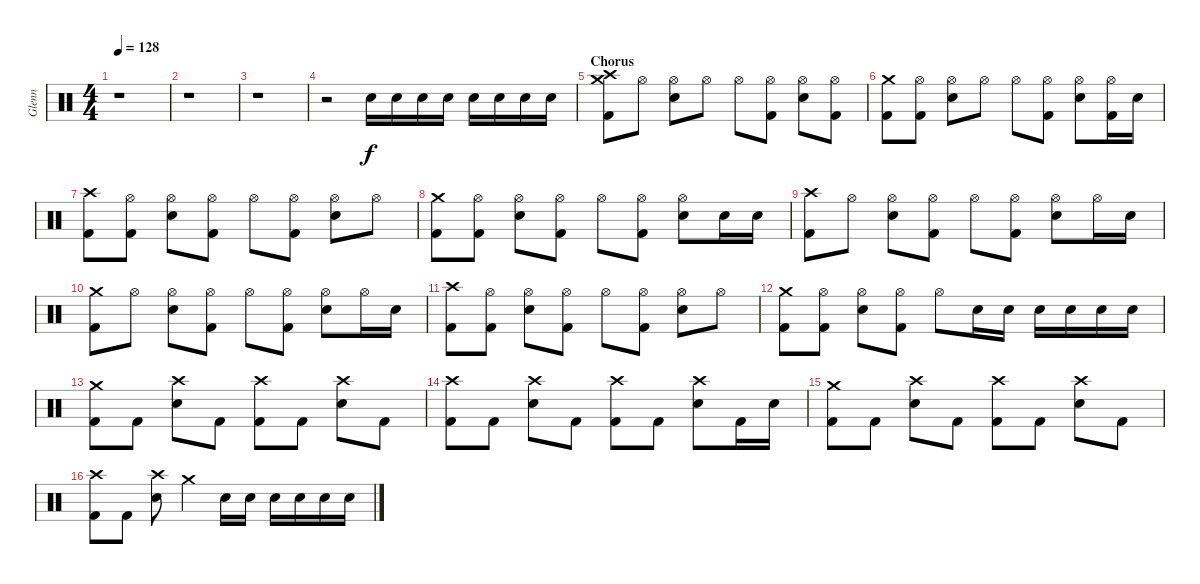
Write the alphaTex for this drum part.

\track ("Glenn" "Glenn") {instrument percussion}
\staff {score}
\articulation defaults
\ts (4 4)
\tempo 128
\clef neutral
\ks c
r.1{dy f} |
r.1 |
r.1 |
r.2 "Electric Snare (hit)".16 "Electric Snare (hit)".16 "Electric Snare (hit)".16 "Electric Snare (hit)".16 "Electric Snare (hit)".16 "Electric Snare (hit)".16 "Electric Snare (hit)".16 "Electric Snare (hit)".16 |
\section ("" "Chorus")
("Crash medium (hit)" "Crash high (hit)" "Kick (hit) 2").8 "Hi-Hat (open)".8 ("Hi-Hat (open)" "Electric Snare (hit)").8 "Hi-Hat (open)".8 "Hi-Hat (open)".8 ("Hi-Hat (open)" "Kick (hit) 2").8 ("Hi-Hat (open)" "Electric Snare (hit)").8 ("Hi-Hat (open)" "Kick (hit) 2").8 |
("Crash medium (hit)" "Kick (hit) 2").8 ("Hi-Hat (open)" "Kick (hit) 2").8 ("Hi-Hat (open)" "Electric Snare (hit)").8 "Hi-Hat (open)".8 "Hi-Hat (open)".8 ("Hi-Hat (open)" "Kick (hit) 2").8 ("Hi-Hat (open)" "Electric Snare (hit)").8 ("Hi-Hat (open)" "Kick (hit) 2").16 "Electric Snare (hit)".16 |
("Crash high (hit)" "Kick (hit) 2").8 ("Hi-Hat (open)" "Kick (hit) 2").8 ("Hi-Hat (open)" "Electric Snare (hit)").8 ("Hi-Hat (open)" "Kick (hit) 2").8 "Hi-Hat (open)".8 ("Hi-Hat (open)" "Kick (hit) 2").8 ("Hi-Hat (open)" "Electric Snare (hit)").8 "Hi-Hat (open)".8 |
("Crash medium (hit)" "Kick (hit) 2").8 ("Hi-Hat (open)" "Kick (hit) 2").8 ("Hi-Hat (open)" "Electric Snare (hit)").8 ("Hi-Hat (open)" "Kick (hit) 2").8 "Hi-Hat (open)".8 ("Hi-Hat (open)" "Kick (hit) 2").8 ("Hi-Hat (open)" "Electric Snare (hit)").8 "Electric Snare (hit)".16 "Electric Snare (hit)".16 |
("Crash high (hit)" "Kick (hit) 2").8 "Hi-Hat (open)".8 ("Hi-Hat (open)" "Electric Snare (hit)").8 ("Hi-Hat (open)" "Kick (hit) 2").8 "Hi-Hat (open)".8 ("Hi-Hat (open)" "Kick (hit) 2").8 ("Hi-Hat (open)" "Electric Snare (hit)").8 "Hi-Hat (open)".16 "Electric Snare (hit)".16 |
("Crash medium (hit)" "Kick (hit) 2").8 "Hi-Hat (open)".8 ("Hi-Hat (open)" "Electric Snare (hit)").8 ("Hi-Hat (open)" "Kick (hit) 2").8 "Hi-Hat (open)".8 ("Hi-Hat (open)" "Kick (hit) 2").8 ("Hi-Hat (open)" "Electric Snare (hit)").8 "Hi-Hat (open)".16 "Electric Snare (hit)".16 |
("Crash high (hit)" "Kick (hit) 2").8 ("Hi-Hat (open)" "Kick (hit) 2").8 ("Hi-Hat (open)" "Electric Snare (hit)").8 ("Hi-Hat (open)" "Kick (hit) 2").8 "Hi-Hat (open)".8 ("Hi-Hat (open)" "Kick (hit) 2").8 ("Hi-Hat (open)" "Electric Snare (hit)").8 "Hi-Hat (open)".8 |
("Crash medium (hit)" "Kick (hit) 2").8 ("Hi-Hat (open)" "Kick (hit) 2").8 ("Hi-Hat (open)" "Electric Snare (hit)").8 ("Hi-Hat (open)" "Kick (hit) 2").8 "Hi-Hat (open)".8 "Electric Snare (hit)".16 "Electric Snare (hit)".16 "Electric Snare (hit)".16 "Electric Snare (hit)".16 "Electric Snare (hit)".16 "Electric Snare (hit)".16 |
("Crash medium (hit)" "Kick (hit) 2").8 "Kick (hit) 2".8 ("Crash high (hit)" "Electric Snare (hit)").8 "Kick (hit) 2".8 ("Crash high (hit)" "Kick (hit) 2").8 "Kick (hit) 2".8 ("Crash high (hit)" "Electric Snare (hit)").8 "Kick (hit) 2".8 |
("Crash high (hit)" "Kick (hit) 2").8 "Kick (hit) 2".8 ("Crash high (hit)" "Electric Snare (hit)").8 "Kick (hit) 2".8 ("Crash high (hit)" "Kick (hit) 2").8 "Kick (hit) 2".8 ("Crash high (hit)" "Electric Snare (hit)").8 "Kick (hit) 2".16 "Electric Snare (hit)".16 |
("Crash medium (hit)" "Kick (hit) 2").8 "Kick (hit) 2".8 ("Crash high (hit)" "Electric Snare (hit)").8 "Kick (hit) 2".8 ("Crash high (hit)" "Kick (hit) 2").8 "Kick (hit) 2".8 ("Crash high (hit)" "Electric Snare (hit)").8 "Kick (hit) 2".8 |
("Crash high (hit)" "Kick (hit) 2").8 "Kick (hit) 2".8 ("Crash high (hit)" "Electric Snare (hit)").8 "Crash medium (hit)".4 "Electric Snare (hit)".16 "Electric Snare (hit)".16 "Electric Snare (hit)".16 "Electric Snare (hit)".16 "Electric Snare (hit)".16 "Electric Snare (hit)".16
